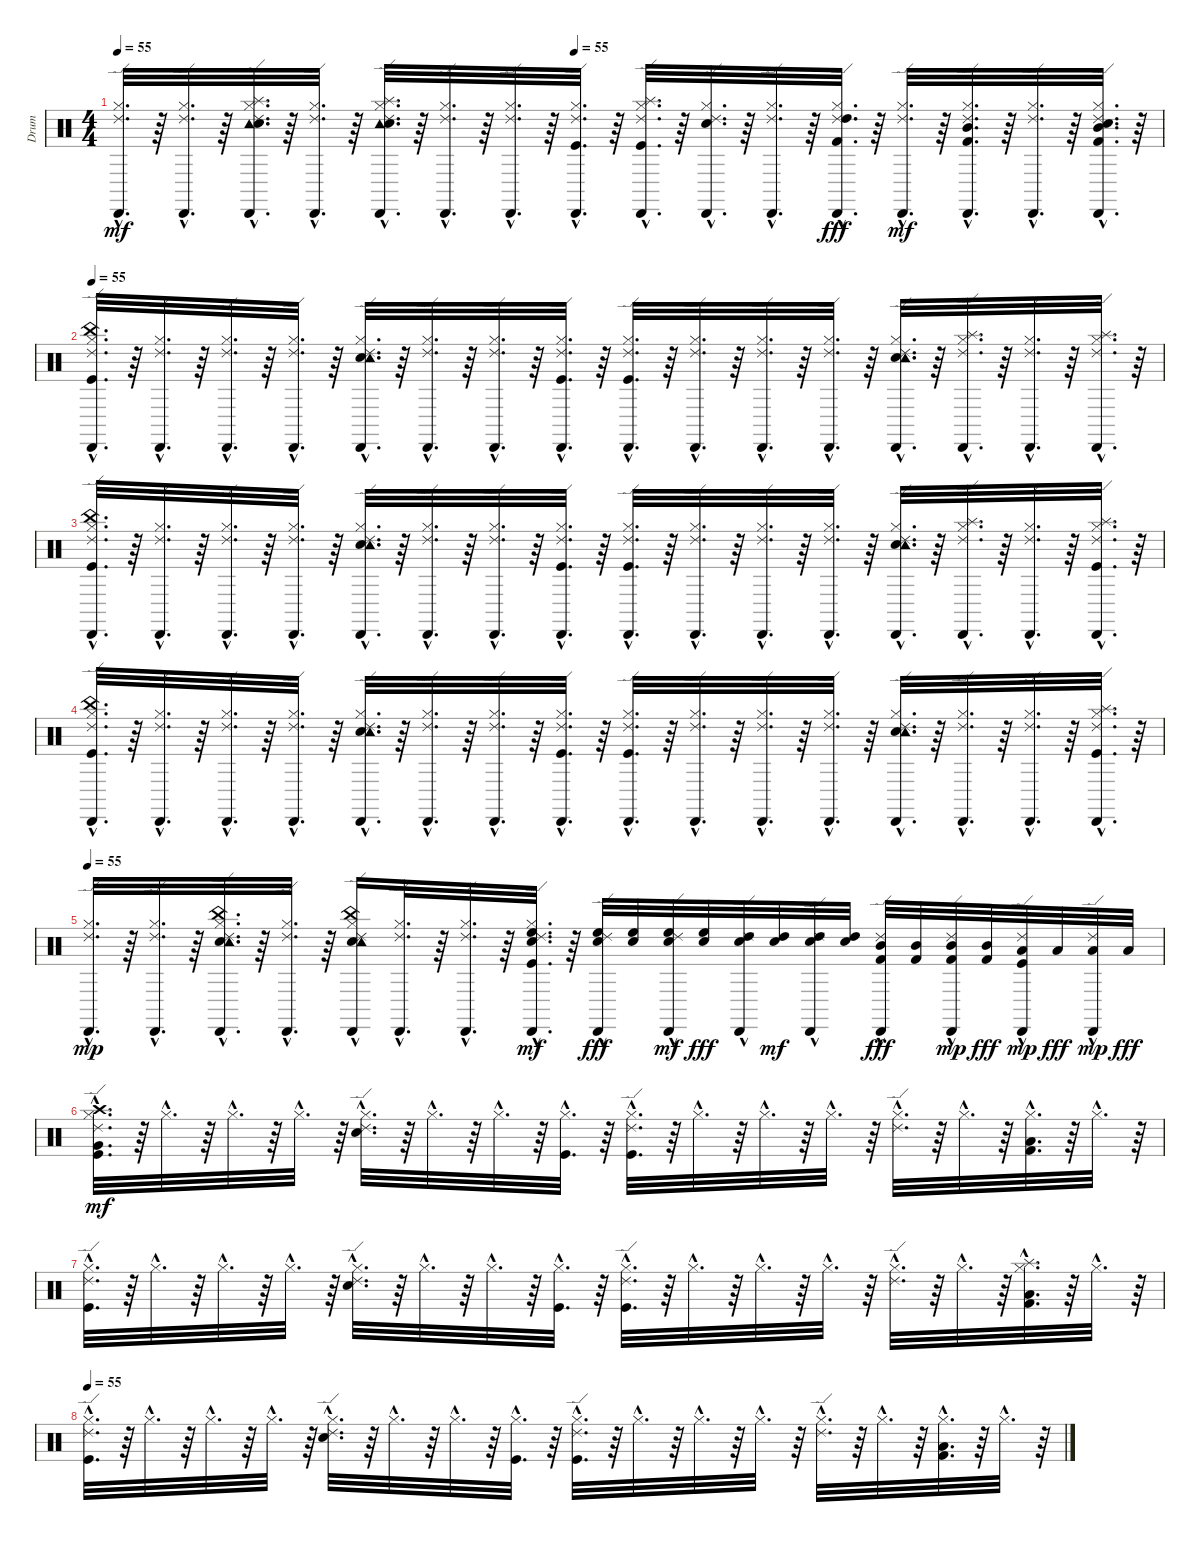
\track ("Drum" "Drum") {instrument percussion}
\staff {score}
\articulation defaults
\ts (4 4)
\tempo 55
\tempo (55 0.4375)
\clef neutral
\ks c
("Cabasa (hit)"{hac} "Ride (edge) 2"{hac} "Hi-Hat (closed)"{hac}).32{d dy mf} r.64 ("Cabasa (hit)"{hac} "Ride (edge) 2"{hac} "Hi-Hat (closed)"{hac}).32{d} r.64 ("Cabasa (hit)"{hac} "Tambourine (hit)"{hac} "Ride (edge) 2"{hac} "Splash (hit)"{hac} "Snare (hit) 2"{hac} "Hi-Hat (closed)"{hac}).32{d} r.64 ("Cabasa (hit)"{hac} "Ride (edge) 2"{hac} "Hi-Hat (closed)"{hac}).32{d} r.64 ("Cabasa (hit)"{hac} "Tambourine (hit)"{hac} "Ride (edge) 2"{hac} "Splash (hit)"{hac} "Snare (hit) 2"{hac} "Hi-Hat (closed)"{hac}).32{d} r.64 ("Cabasa (hit)"{hac} "Ride (edge) 2"{hac} "Hi-Hat (closed)"{hac}).32{d} r.64 ("Cabasa (hit)"{hac} "Ride (edge) 2"{hac} "Hi-Hat (closed)"{hac}).32{d} r.64 ("Cabasa (hit)"{hac} "Ride (edge) 2"{hac} "Kick (hit)"{hac} "Hi-Hat (closed)"{hac}).32{d} r.64 ("Cabasa (hit)"{hac} "Ride (edge) 2"{hac} "Splash (hit)"{hac} "Kick (hit)"{hac} "Hi-Hat (closed)"{hac}).32{d} r.64 ("Cabasa (hit)"{hac} "Ride (edge) 2"{hac} "Hi-Hat (closed)"{hac} "Electric Snare (hit)"{hac}).32{d} r.64 ("Cabasa (hit)"{hac} "Ride (edge) 2"{hac} "Hi-Hat (closed)"{hac}).32{d} r.64 ("Cabasa (hit)"{hac} "Ride (edge) 2"{hac} "Hi-Hat (closed)"{hac} "Kick (hit) 2"{hac} "High Tom (hit)"{hac}).32{d dy fff} r.64 ("Cabasa (hit)"{hac} "Ride (edge) 2"{hac} "Hi-Hat (closed)"{hac}).32{d dy mf} r.64 ("Cabasa (hit)"{hac} "Ride (edge) 2"{hac} "Hi-Hat (closed)"{hac} "Mid Tom (hit)"{hac} "Kick (hit) 2"{hac}).32{d} r.64 ("Cabasa (hit)"{hac} "Ride (edge) 2"{hac} "Hi-Hat (closed)"{hac}).32{d} r.64 ("Cabasa (hit)"{hac} "Ride (edge) 2"{hac} "Hi-Hat (closed)"{hac} "Mid Tom (hit)"{hac} "Kick (hit) 2"{hac} "Electric Snare (hit)"{hac}).32{d} r.64 |
\tempo 55
("Cabasa (hit)"{hac} "China (hit)"{hac} "Kick (hit)"{hac} "Hi-Hat (closed)"{hac} "Ride (edge) 2"{hac}).32{d} r.64 ("Cabasa (hit)"{hac} "Hi-Hat (closed)"{hac} "Ride (edge) 2"{hac}).32{d} r.64 ("Cabasa (hit)"{hac} "Hi-Hat (closed)"{hac} "Ride (edge) 2"{hac}).32{d} r.64 ("Cabasa (hit)"{hac} "Hi-Hat (closed)"{hac} "Ride (edge) 2"{hac}).32{d} r.64 ("Cabasa (hit)"{hac} "Snare (hit) 2"{hac} "Hi-Hat (closed)"{hac} "Tambourine (hit)"{hac} "Ride (edge) 2"{hac}).32{d} r.64 ("Cabasa (hit)"{hac} "Hi-Hat (closed)"{hac} "Ride (edge) 2"{hac}).32{d} r.64 ("Cabasa (hit)"{hac} "Hi-Hat (closed)"{hac} "Ride (edge) 2"{hac}).32{d} r.64 ("Cabasa (hit)"{hac} "Kick (hit)"{hac} "Hi-Hat (closed)"{hac} "Ride (edge) 2"{hac}).32{d} r.64 ("Cabasa (hit)"{hac} "Kick (hit)"{hac} "Hi-Hat (closed)"{hac} "Ride (edge) 2"{hac}).32{d} r.64 ("Cabasa (hit)"{hac} "Hi-Hat (closed)"{hac} "Ride (edge) 2"{hac}).32{d} r.64 ("Cabasa (hit)"{hac} "Hi-Hat (closed)"{hac} "Ride (edge) 2"{hac}).32{d} r.64 ("Cabasa (hit)"{hac} "Hi-Hat (closed)"{hac} "Ride (edge) 2"{hac}).32{d} r.64 ("Cabasa (hit)"{hac} "Snare (hit) 2"{hac} "Hi-Hat (closed)"{hac} "Tambourine (hit)"{hac} "Ride (edge) 2"{hac}).32{d} r.64 ("Cabasa (hit)"{hac} "Splash (hit)"{hac} "Hi-Hat (closed)"{hac} "Ride (edge) 2"{hac}).32{d} r.64 ("Cabasa (hit)"{hac} "Hi-Hat (closed)"{hac} "Ride (edge) 2"{hac}).32{d} r.64 ("Cabasa (hit)"{hac} "Splash (hit)"{hac} "Hi-Hat (closed)"{hac} "Ride (edge) 2"{hac}).32{d} r.64 |
("Cabasa (hit)"{hac} "China (hit)"{hac} "Hi-Hat (closed)"{hac} "Kick (hit)"{hac} "Ride (edge) 2"{hac}).32{d} r.64 ("Cabasa (hit)"{hac} "Hi-Hat (closed)"{hac} "Ride (edge) 2"{hac}).32{d} r.64 ("Cabasa (hit)"{hac} "Hi-Hat (closed)"{hac} "Ride (edge) 2"{hac}).32{d} r.64 ("Cabasa (hit)"{hac} "Hi-Hat (closed)"{hac} "Ride (edge) 2"{hac}).32{d} r.64 ("Cabasa (hit)"{hac} "Hi-Hat (closed)"{hac} "Snare (hit) 2"{hac} "Tambourine (hit)"{hac} "Ride (edge) 2"{hac}).32{d} r.64 ("Cabasa (hit)"{hac} "Hi-Hat (closed)"{hac} "Ride (edge) 2"{hac}).32{d} r.64 ("Cabasa (hit)"{hac} "Hi-Hat (closed)"{hac} "Ride (edge) 2"{hac}).32{d} r.64 ("Cabasa (hit)"{hac} "Kick (hit)"{hac} "Hi-Hat (closed)"{hac} "Ride (edge) 2"{hac}).32{d} r.64 ("Cabasa (hit)"{hac} "Hi-Hat (closed)"{hac} "Kick (hit)"{hac} "Ride (edge) 2"{hac}).32{d} r.64 ("Cabasa (hit)"{hac} "Hi-Hat (closed)"{hac} "Ride (edge) 2"{hac}).32{d} r.64 ("Cabasa (hit)"{hac} "Hi-Hat (closed)"{hac} "Ride (edge) 2"{hac}).32{d} r.64 ("Cabasa (hit)"{hac} "Hi-Hat (closed)"{hac} "Ride (edge) 2"{hac}).32{d} r.64 ("Cabasa (hit)"{hac} "Hi-Hat (closed)"{hac} "Snare (hit) 2"{hac} "Tambourine (hit)"{hac} "Ride (edge) 2"{hac}).32{d} r.64 ("Cabasa (hit)"{hac} "Splash (hit)"{hac} "Hi-Hat (closed)"{hac} "Ride (edge) 2"{hac}).32{d} r.64 ("Cabasa (hit)"{hac} "Hi-Hat (closed)"{hac} "Ride (edge) 2"{hac}).32{d} r.64 ("Cabasa (hit)"{hac} "Splash (hit)"{hac} "Hi-Hat (closed)"{hac} "Kick (hit)"{hac} "Ride (edge) 2"{hac}).32{d} r.64 |
("Cabasa (hit)"{hac} "Hi-Hat (closed)"{hac} "Kick (hit)"{hac} "China (hit)"{hac} "Ride (edge) 2"{hac}).32{d} r.64 ("Cabasa (hit)"{hac} "Hi-Hat (closed)"{hac} "Ride (edge) 2"{hac}).32{d} r.64 ("Cabasa (hit)"{hac} "Hi-Hat (closed)"{hac} "Ride (edge) 2"{hac}).32{d} r.64 ("Cabasa (hit)"{hac} "Hi-Hat (closed)"{hac} "Ride (edge) 2"{hac}).32{d} r.64 ("Cabasa (hit)"{hac} "Hi-Hat (closed)"{hac} "Snare (hit) 2"{hac} "Tambourine (hit)"{hac} "Ride (edge) 2"{hac}).32{d} r.64 ("Cabasa (hit)"{hac} "Hi-Hat (closed)"{hac} "Ride (edge) 2"{hac}).32{d} r.64 ("Cabasa (hit)"{hac} "Hi-Hat (closed)"{hac} "Ride (edge) 2"{hac}).32{d} r.64 ("Cabasa (hit)"{hac} "Kick (hit)"{hac} "Hi-Hat (closed)"{hac} "Ride (edge) 2"{hac}).32{d} r.64 ("Cabasa (hit)"{hac} "Hi-Hat (closed)"{hac} "Kick (hit)"{hac} "Ride (edge) 2"{hac}).32{d} r.64 ("Cabasa (hit)"{hac} "Hi-Hat (closed)"{hac} "Ride (edge) 2"{hac}).32{d} r.64 ("Cabasa (hit)"{hac} "Hi-Hat (closed)"{hac} "Ride (edge) 2"{hac}).32{d} r.64 ("Cabasa (hit)"{hac} "Hi-Hat (closed)"{hac} "Ride (edge) 2"{hac}).32{d} r.64 ("Cabasa (hit)"{hac} "Hi-Hat (closed)"{hac} "Snare (hit) 2"{hac} "Tambourine (hit)"{hac} "Ride (edge) 2"{hac}).32{d} r.64 ("Cabasa (hit)"{hac} "Hi-Hat (closed)"{hac} "Ride (edge) 2"{hac}).32{d} r.64 ("Cabasa (hit)"{hac} "Hi-Hat (closed)"{hac} "Ride (edge) 2"{hac}).32{d} r.64 ("Cabasa (hit)"{hac} "Hi-Hat (closed)"{hac} "Kick (hit)"{hac} "Splash (hit)"{hac} "Ride (edge) 2"{hac}).32{d} r.64 |
\tempo 55
("Cabasa (hit)"{hac} "Hi-Hat (closed)"{hac} "Ride (edge) 2"{hac}).32{d dy mp} r.64 ("Cabasa (hit)"{hac} "Hi-Hat (closed)"{hac} "Ride (edge) 2"{hac}).32{d} r.64 ("Cabasa (hit)"{hac} "China (hit)"{hac} "Snare (hit) 2"{hac} "Hi-Hat (closed)"{hac} "Tambourine (hit)"{hac} "Ride (edge) 2"{hac}).32{d} r.64 ("Cabasa (hit)"{hac} "Hi-Hat (closed)"{hac} "Ride (edge) 2"{hac}).32{d} r.64 ("Cabasa (hit)"{hac} "China (hit)"{hac} "Hi-Hat (closed)"{hac} "Snare (hit) 2"{hac} "Tambourine (hit)"{hac} "Ride (edge) 2"{hac}).16 ("Cabasa (hit)"{hac} "Hi-Hat (closed)"{hac} "Ride (edge) 2"{hac}).32{d} r.64 ("Cabasa (hit)"{hac} "Hi-Hat (closed)"{hac} "Ride (edge) 2"{hac}).32{d} r.64 ("Cabasa (hit)"{hac} "Electric Snare (hit)"{hac} "High Floor Tom (hit)"{hac} "Hi-Hat (closed)"{hac} "Ride (edge) 2"{hac} "Kick (hit)"{hac}).32{d dy mf} r.64 ("Cabasa (hit)"{hac} "Electric Snare (hit)" "Ride (edge) 2" "High Floor Tom (hit)").32{dy fff} ("Electric Snare (hit)" "High Floor Tom (hit)").32 ("Cabasa (hit)"{hac} "High Floor Tom (hit)" "Ride (edge) 2" "Electric Snare (hit)").32{dy mf} ("Electric Snare (hit)" "High Floor Tom (hit)").32{dy fff} ("Cabasa (hit)"{hac} "Snare (hit) 2" "Ride (edge) 2" "High Tom (hit)").32 ("High Tom (hit)" "Snare (hit) 2").32{dy mf} ("Cabasa (hit)"{hac} "High Tom (hit)" "Ride (edge) 2" "Snare (hit) 2").32 ("High Tom (hit)" "Snare (hit) 2").32 ("Cabasa (hit)"{hac} "Mid Tom (hit)" "Ride (edge) 2" "Kick (hit) 2").32{dy fff} ("Mid Tom (hit)" "Kick (hit) 2").32 ("Cabasa (hit)"{hac} "Kick (hit) 2" "Mid Tom (hit)" "Ride (edge) 2").32{dy mp} ("Kick (hit) 2" "Mid Tom (hit)").32{dy fff} ("Cabasa (hit)"{hac} "Kick (hit)" "Low Tom (hit)" "Ride (edge) 2").32{dy mp} "Low Tom (hit)".32{dy fff} ("Cabasa (hit)"{hac} "Low Tom (hit)" "Ride (edge) 2").32{dy mp} "Low Tom (hit)".32{dy fff} |
("Very Low Tom (hit)"{hac} "Crash high (hit)"{hac} "Ride (edge) 2"{hac} "Kick (hit)"{hac} "Hi-Hat (closed)"{hac}).32{d dy mf} r.64 "Hi-Hat (closed)"{hac}.32{d} r.64 "Hi-Hat (closed)"{hac}.32{d} r.64 "Hi-Hat (closed)"{hac}.32{d} r.64 ("Snare (hit) 2"{hac} "Hi-Hat (closed)"{hac} "Ride (edge) 2"{hac}).32{d} r.64 "Hi-Hat (closed)"{hac}.32{d} r.64 "Hi-Hat (closed)"{hac}.32{d} r.64 ("Kick (hit)"{hac} "Hi-Hat (closed)"{hac}).32{d} r.64 ("Ride (edge) 2"{hac} "Hi-Hat (closed)"{hac} "Kick (hit)"{hac}).32{d} r.64 "Hi-Hat (closed)"{hac}.32{d} r.64 "Hi-Hat (closed)"{hac}.32{d} r.64 "Hi-Hat (closed)"{hac}.32{d} r.64 ("Ride (edge) 2"{hac} "Hi-Hat (closed)"{hac}).32{d} r.64 "Hi-Hat (closed)"{hac}.32{d} r.64 ("Hi-Hat (closed)"{hac} "Low Tom (hit)"{hac} "Kick (hit) 2"{hac}).32{d} r.64 "Hi-Hat (closed)"{hac}.32{d} r.64 |
("Ride (edge) 2"{hac} "Hi-Hat (closed)"{hac} "Kick (hit)"{hac}).32{d} r.64 "Hi-Hat (closed)"{hac}.32{d} r.64 "Hi-Hat (closed)"{hac}.32{d} r.64 "Hi-Hat (closed)"{hac}.32{d} r.64 ("Ride (edge) 2"{hac} "Hi-Hat (closed)"{hac} "Snare (hit) 2"{hac}).32{d} r.64 "Hi-Hat (closed)"{hac}.32{d} r.64 "Hi-Hat (closed)"{hac}.32{d} r.64 ("Hi-Hat (closed)"{hac} "Kick (hit)"{hac}).32{d} r.64 ("Ride (edge) 2"{hac} "Hi-Hat (closed)"{hac} "Kick (hit)"{hac}).32{d} r.64 "Hi-Hat (closed)"{hac}.32{d} r.64 "Hi-Hat (closed)"{hac}.32{d} r.64 "Hi-Hat (closed)"{hac}.32{d} r.64 ("Ride (edge) 2"{hac} "Hi-Hat (closed)"{hac}).32{d} r.64 "Hi-Hat (closed)"{hac}.32{d} r.64 ("Kick (hit) 2"{hac} "Low Tom (hit)"{hac} "Splash (hit)"{hac} "Hi-Hat (closed)"{hac}).32{d} r.64 "Hi-Hat (closed)"{hac}.32{d} r.64 |
\tempo 55
("Kick (hit)"{hac} "Hi-Hat (closed)"{hac} "Ride (edge) 2"{hac}).32{d} r.64 "Hi-Hat (closed)"{hac}.32{d} r.64 "Hi-Hat (closed)"{hac}.32{d} r.64 "Hi-Hat (closed)"{hac}.32{d} r.64 ("Snare (hit) 2"{hac} "Ride (edge) 2"{hac} "Hi-Hat (closed)"{hac}).32{d} r.64 "Hi-Hat (closed)"{hac}.32{d} r.64 "Hi-Hat (closed)"{hac}.32{d} r.64 ("Hi-Hat (closed)"{hac} "Kick (hit)"{hac}).32{d} r.64 ("Kick (hit)"{hac} "Ride (edge) 2"{hac} "Hi-Hat (closed)"{hac}).32{d} r.64 "Hi-Hat (closed)"{hac}.32{d} r.64 "Hi-Hat (closed)"{hac}.32{d} r.64 "Hi-Hat (closed)"{hac}.32{d} r.64 ("Ride (edge) 2"{hac} "Hi-Hat (closed)"{hac}).32{d} r.64 "Hi-Hat (closed)"{hac}.32{d} r.64 ("Hi-Hat (closed)"{hac} "Kick (hit) 2"{hac} "Low Tom (hit)"{hac}).32{d} r.64 "Hi-Hat (closed)"{hac}.32{d} r.64
